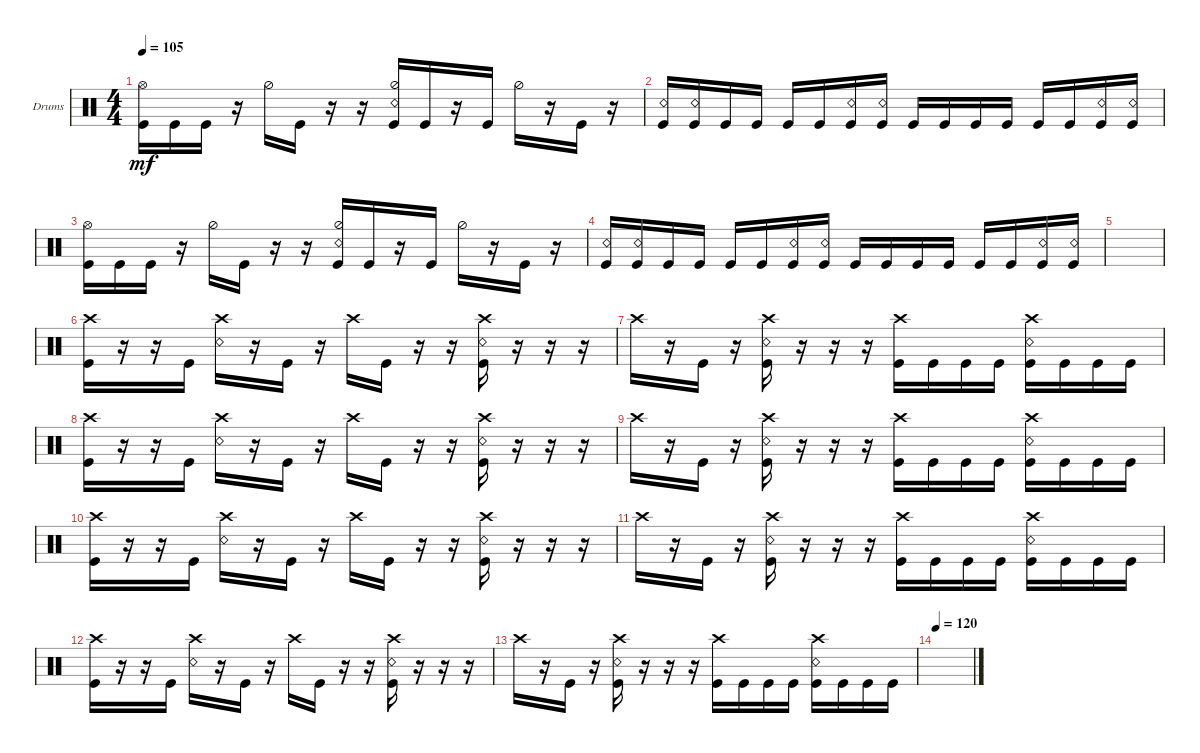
\defaultSystemsLayout 4
\bracketExtendMode groupsimilarinstruments
\firstSystemTrackNameOrientation horizontal
\otherSystemsTrackNameOrientation horizontal
\track ("Drums" "Drums") {instrument percussion}
\staff {score}
\articulation defaults
\ts (4 4)
\tempo 105
\clef neutral
\ks c
("Kick (hit)" "Hi-Hat (open)").16{dy mf} "Kick (hit)".16 "Kick (hit)".16 r.16 "Hi-Hat (half)".16 "Kick (hit)".16 r.16 r.16 ("Kick (hit)" "Hi-Hat (half)" "Snare (rim shot)").16 "Kick (hit)".16 r.16 "Kick (hit)".16 "Hi-Hat (half)".16 r.16 "Kick (hit)".16 r.16 |
("Kick (hit)" "Snare (rim shot)").16 ("Kick (hit)" "Snare (rim shot)").16 "Kick (hit)".16 "Kick (hit)".16 "Kick (hit)".16 "Kick (hit)".16 ("Kick (hit)" "Snare (rim shot)").16 ("Kick (hit)" "Snare (rim shot)").16 "Kick (hit)".16 "Kick (hit)".16 "Kick (hit)".16 "Kick (hit)".16 "Kick (hit)".16 "Kick (hit)".16 ("Kick (hit)" "Snare (rim shot)").16 ("Kick (hit)" "Snare (rim shot)").16 |
("Kick (hit)" "Hi-Hat (open)").16 "Kick (hit)".16 "Kick (hit)".16 r.16 "Hi-Hat (half)".16 "Kick (hit)".16 r.16 r.16 ("Kick (hit)" "Hi-Hat (half)" "Snare (rim shot)").16 "Kick (hit)".16 r.16 "Kick (hit)".16 "Hi-Hat (half)".16 r.16 "Kick (hit)".16 r.16 |
("Kick (hit)" "Snare (rim shot)").16 ("Kick (hit)" "Snare (rim shot)").16 "Kick (hit)".16 "Kick (hit)".16 "Kick (hit)".16 "Kick (hit)".16 ("Kick (hit)" "Snare (rim shot)").16 ("Kick (hit)" "Snare (rim shot)").16 "Kick (hit)".16 "Kick (hit)".16 "Kick (hit)".16 "Kick (hit)".16 "Kick (hit)".16 "Kick (hit)".16 ("Kick (hit)" "Snare (rim shot)").16 ("Kick (hit)" "Snare (rim shot)").16 |
|
("Kick (hit)" "Crash high (hit)").16 r.16 r.16 "Kick (hit)".16 ("Crash high (hit)" "Snare (rim shot)").16 r.16 "Kick (hit)".16 r.16 "Crash high (hit)".16 "Kick (hit)".16 r.16 r.16 ("Kick (hit)" "Crash high (hit)" "Snare (rim shot)").16 r.16 r.16 r.16 |
"Crash high (hit)".16 r.16 "Kick (hit)".16 r.16 ("Kick (hit)" "Crash high (hit)" "Snare (rim shot)").16 r.16 r.16 r.16 ("Kick (hit)" "Crash high (hit)").16 "Kick (hit)".16 "Kick (hit)".16 "Kick (hit)".16 ("Kick (hit)" "Crash high (hit)" "Snare (rim shot)").16 "Kick (hit)".16 "Kick (hit)".16 "Kick (hit)".16 |
("Kick (hit)" "Crash high (hit)").16 r.16 r.16 "Kick (hit)".16 ("Crash high (hit)" "Snare (rim shot)").16 r.16 "Kick (hit)".16 r.16 "Crash high (hit)".16 "Kick (hit)".16 r.16 r.16 ("Kick (hit)" "Crash high (hit)" "Snare (rim shot)").16 r.16 r.16 r.16 |
"Crash high (hit)".16 r.16 "Kick (hit)".16 r.16 ("Kick (hit)" "Crash high (hit)" "Snare (rim shot)").16 r.16 r.16 r.16 ("Kick (hit)" "Crash high (hit)").16 "Kick (hit)".16 "Kick (hit)".16 "Kick (hit)".16 ("Kick (hit)" "Crash high (hit)" "Snare (rim shot)").16 "Kick (hit)".16 "Kick (hit)".16 "Kick (hit)".16 |
("Kick (hit)" "Crash high (hit)").16 r.16 r.16 "Kick (hit)".16 ("Crash high (hit)" "Snare (rim shot)").16 r.16 "Kick (hit)".16 r.16 "Crash high (hit)".16 "Kick (hit)".16 r.16 r.16 ("Kick (hit)" "Crash high (hit)" "Snare (rim shot)").16 r.16 r.16 r.16 |
"Crash high (hit)".16 r.16 "Kick (hit)".16 r.16 ("Kick (hit)" "Crash high (hit)" "Snare (rim shot)").16 r.16 r.16 r.16 ("Kick (hit)" "Crash high (hit)").16 "Kick (hit)".16 "Kick (hit)".16 "Kick (hit)".16 ("Kick (hit)" "Crash high (hit)" "Snare (rim shot)").16 "Kick (hit)".16 "Kick (hit)".16 "Kick (hit)".16 |
("Kick (hit)" "Crash high (hit)").16 r.16 r.16 "Kick (hit)".16 ("Crash high (hit)" "Snare (rim shot)").16 r.16 "Kick (hit)".16 r.16 "Crash high (hit)".16 "Kick (hit)".16 r.16 r.16 ("Kick (hit)" "Crash high (hit)" "Snare (rim shot)").16 r.16 r.16 r.16 |
"Crash high (hit)".16 r.16 "Kick (hit)".16 r.16 ("Kick (hit)" "Crash high (hit)" "Snare (rim shot)").16 r.16 r.16 r.16 ("Kick (hit)" "Crash high (hit)").16 "Kick (hit)".16 "Kick (hit)".16 "Kick (hit)".16 ("Kick (hit)" "Crash high (hit)" "Snare (rim shot)").16 "Kick (hit)".16 "Kick (hit)".16 "Kick (hit)".16 |
\tempo 120
